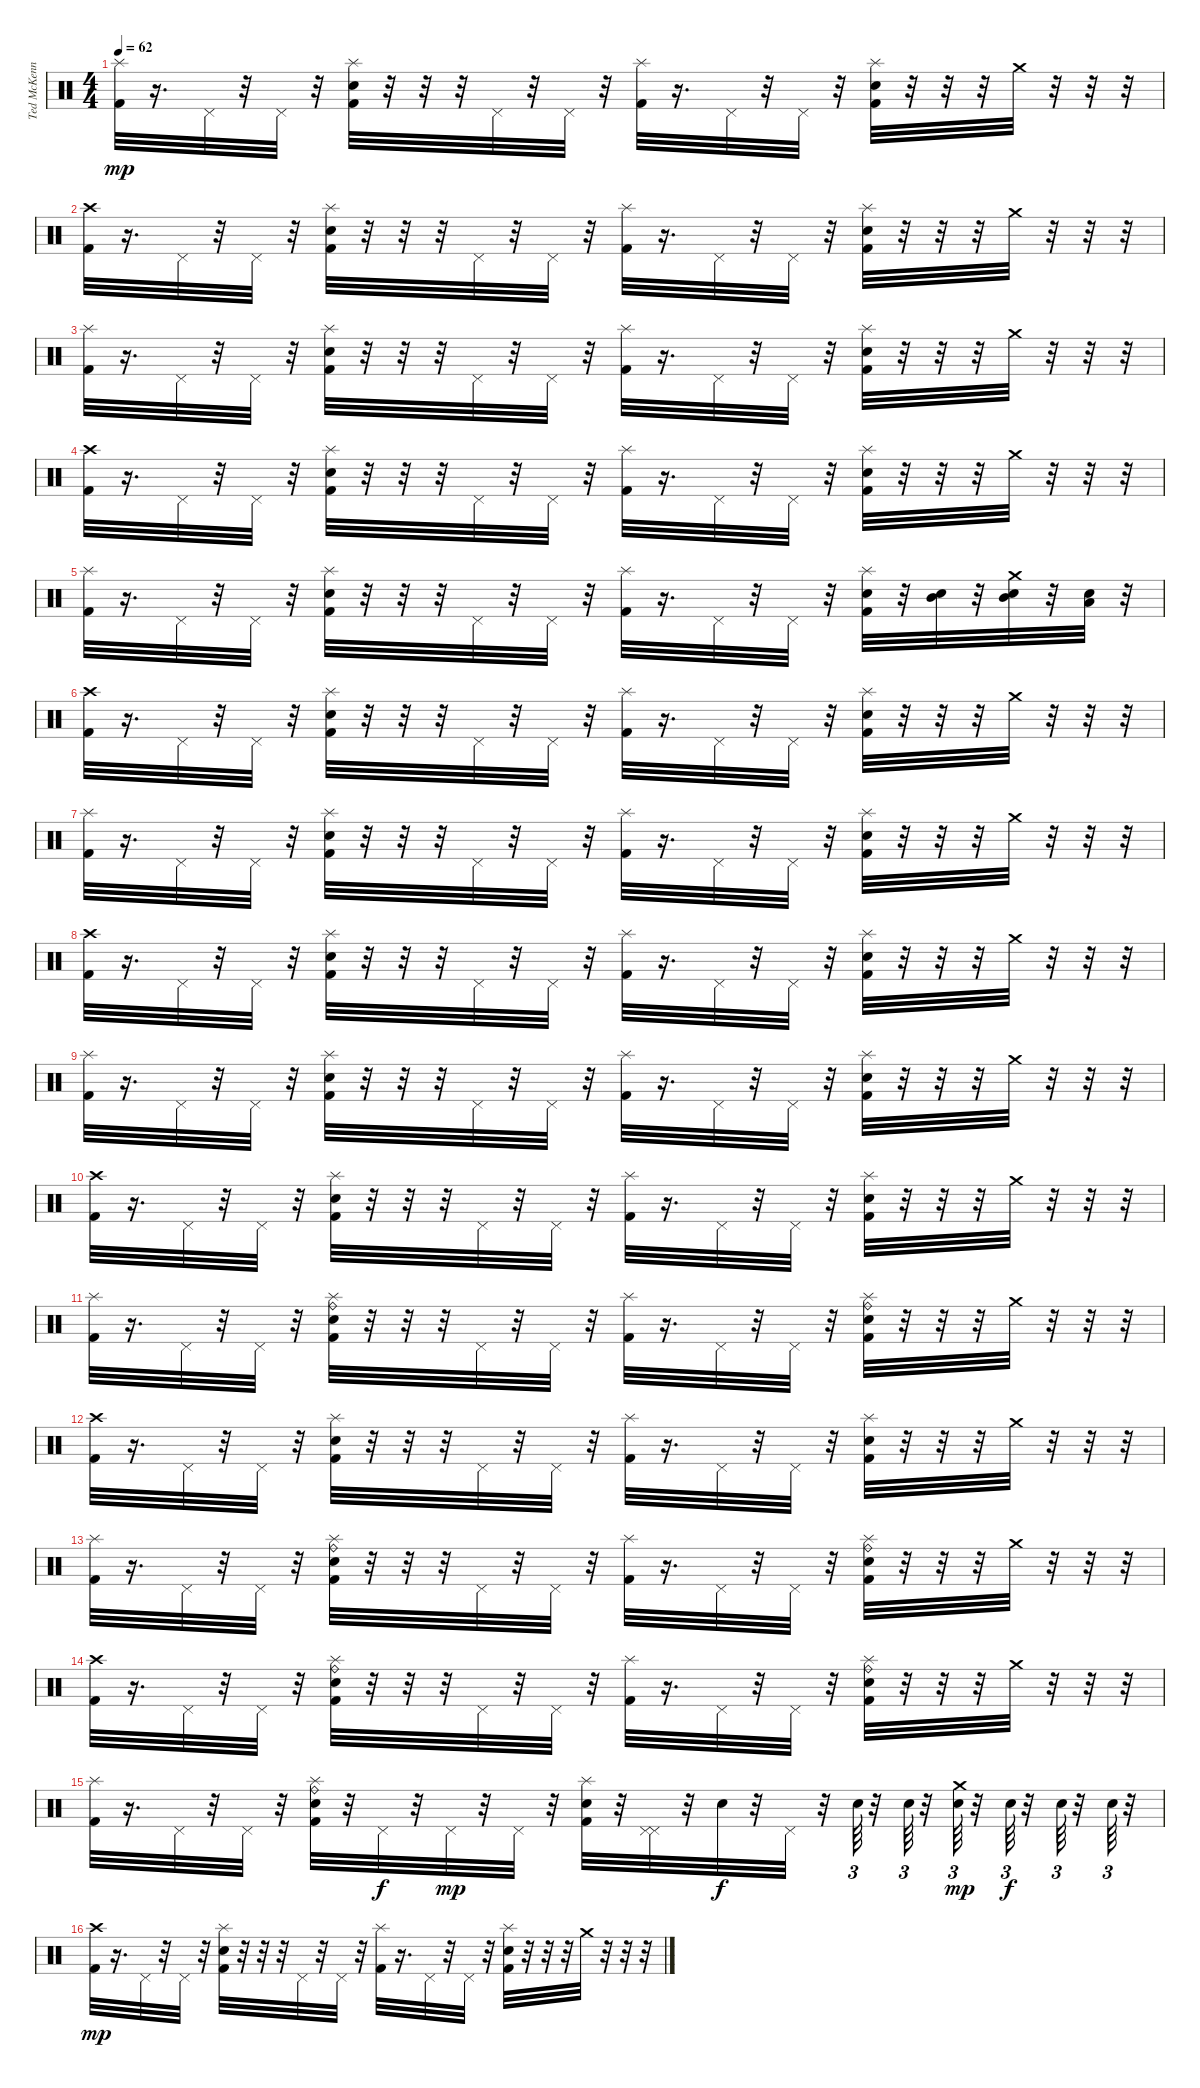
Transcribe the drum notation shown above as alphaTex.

\track ("Ted McKenna" "Ted McKenn") {instrument percussion}
\staff {score}
\articulation defaults
\ts (4 4)
\tempo 62
\clef neutral
\ks c
("Splash (hit)" "Kick (hit) 2").32{dy mp} r.16{d} "Pedal Hi-Hat (hit)".32 r.32 "Pedal Hi-Hat (hit)".32 r.32 ("Splash (hit)" "Electric Snare (hit)" "Kick (hit) 2").32 r.32 r.32 r.32 "Pedal Hi-Hat (hit)".32 r.32 "Pedal Hi-Hat (hit)".32 r.32 ("Splash (hit)" "Kick (hit) 2").32 r.16{d} "Pedal Hi-Hat (hit)".32 r.32 "Pedal Hi-Hat (hit)".32 r.32 ("Splash (hit)" "Electric Snare (hit)" "Kick (hit) 2").32 r.32 r.32 r.32 "Crash medium (hit)".32 r.32 r.32 r.32 |
("Crash high (hit)" "Kick (hit) 2").32 r.16{d} "Pedal Hi-Hat (hit)".32 r.32 "Pedal Hi-Hat (hit)".32 r.32 ("Splash (hit)" "Electric Snare (hit)" "Kick (hit) 2").32 r.32 r.32 r.32 "Pedal Hi-Hat (hit)".32 r.32 "Pedal Hi-Hat (hit)".32 r.32 ("Splash (hit)" "Kick (hit) 2").32 r.16{d} "Pedal Hi-Hat (hit)".32 r.32 "Pedal Hi-Hat (hit)".32 r.32 ("Splash (hit)" "Electric Snare (hit)" "Kick (hit) 2").32 r.32 r.32 r.32 "Crash medium (hit)".32 r.32 r.32 r.32 |
("Splash (hit)" "Kick (hit) 2").32 r.16{d} "Pedal Hi-Hat (hit)".32 r.32 "Pedal Hi-Hat (hit)".32 r.32 ("Splash (hit)" "Electric Snare (hit)" "Kick (hit) 2").32 r.32 r.32 r.32 "Pedal Hi-Hat (hit)".32 r.32 "Pedal Hi-Hat (hit)".32 r.32 ("Splash (hit)" "Kick (hit) 2").32 r.16{d} "Pedal Hi-Hat (hit)".32 r.32 "Pedal Hi-Hat (hit)".32 r.32 ("Splash (hit)" "Electric Snare (hit)" "Kick (hit) 2").32 r.32 r.32 r.32 "Crash medium (hit)".32 r.32 r.32 r.32 |
("Crash high (hit)" "Kick (hit) 2").32 r.16{d} "Pedal Hi-Hat (hit)".32 r.32 "Pedal Hi-Hat (hit)".32 r.32 ("Splash (hit)" "Electric Snare (hit)" "Kick (hit) 2").32 r.32 r.32 r.32 "Pedal Hi-Hat (hit)".32 r.32 "Pedal Hi-Hat (hit)".32 r.32 ("Splash (hit)" "Kick (hit) 2").32 r.16{d} "Pedal Hi-Hat (hit)".32 r.32 "Pedal Hi-Hat (hit)".32 r.32 ("Splash (hit)" "Electric Snare (hit)" "Kick (hit) 2").32 r.32 r.32 r.32 "Crash medium (hit)".32 r.32 r.32 r.32 |
("Splash (hit)" "Kick (hit) 2").32 r.16{d} "Pedal Hi-Hat (hit)".32 r.32 "Pedal Hi-Hat (hit)".32 r.32 ("Splash (hit)" "Electric Snare (hit)" "Kick (hit) 2").32 r.32 r.32 r.32 "Pedal Hi-Hat (hit)".32 r.32 "Pedal Hi-Hat (hit)".32 r.32 ("Splash (hit)" "Kick (hit) 2").32 r.16{d} "Pedal Hi-Hat (hit)".32 r.32 "Pedal Hi-Hat (hit)".32 r.32 ("Splash (hit)" "Electric Snare (hit)" "Kick (hit) 2").32 r.32 ("Electric Snare (hit)" "Mid Tom (hit)").32 r.32 ("Crash medium (hit)" "Electric Snare (hit)" "Mid Tom (hit)").32 r.32 ("Electric Snare (hit)" "Low Tom (hit)").32 r.32 |
("Crash high (hit)" "Kick (hit) 2").32 r.16{d} "Pedal Hi-Hat (hit)".32 r.32 "Pedal Hi-Hat (hit)".32 r.32 ("Splash (hit)" "Electric Snare (hit)" "Kick (hit) 2").32 r.32 r.32 r.32 "Pedal Hi-Hat (hit)".32 r.32 "Pedal Hi-Hat (hit)".32 r.32 ("Splash (hit)" "Kick (hit) 2").32 r.16{d} "Pedal Hi-Hat (hit)".32 r.32 "Pedal Hi-Hat (hit)".32 r.32 ("Splash (hit)" "Electric Snare (hit)" "Kick (hit) 2").32 r.32 r.32 r.32 "Crash medium (hit)".32 r.32 r.32 r.32 |
("Splash (hit)" "Kick (hit) 2").32 r.16{d} "Pedal Hi-Hat (hit)".32 r.32 "Pedal Hi-Hat (hit)".32 r.32 ("Splash (hit)" "Electric Snare (hit)" "Kick (hit) 2").32 r.32 r.32 r.32 "Pedal Hi-Hat (hit)".32 r.32 "Pedal Hi-Hat (hit)".32 r.32 ("Splash (hit)" "Kick (hit) 2").32 r.16{d} "Pedal Hi-Hat (hit)".32 r.32 "Pedal Hi-Hat (hit)".32 r.32 ("Splash (hit)" "Electric Snare (hit)" "Kick (hit) 2").32 r.32 r.32 r.32 "Crash medium (hit)".32 r.32 r.32 r.32 |
("Crash high (hit)" "Kick (hit) 2").32 r.16{d} "Pedal Hi-Hat (hit)".32 r.32 "Pedal Hi-Hat (hit)".32 r.32 ("Splash (hit)" "Electric Snare (hit)" "Kick (hit) 2").32 r.32 r.32 r.32 "Pedal Hi-Hat (hit)".32 r.32 "Pedal Hi-Hat (hit)".32 r.32 ("Splash (hit)" "Kick (hit) 2").32 r.16{d} "Pedal Hi-Hat (hit)".32 r.32 "Pedal Hi-Hat (hit)".32 r.32 ("Splash (hit)" "Electric Snare (hit)" "Kick (hit) 2").32 r.32 r.32 r.32 "Crash medium (hit)".32 r.32 r.32 r.32 |
("Splash (hit)" "Kick (hit) 2").32 r.16{d} "Pedal Hi-Hat (hit)".32 r.32 "Pedal Hi-Hat (hit)".32 r.32 ("Splash (hit)" "Electric Snare (hit)" "Kick (hit) 2").32 r.32 r.32 r.32 "Pedal Hi-Hat (hit)".32 r.32 "Pedal Hi-Hat (hit)".32 r.32 ("Splash (hit)" "Kick (hit) 2").32 r.16{d} "Pedal Hi-Hat (hit)".32 r.32 "Pedal Hi-Hat (hit)".32 r.32 ("Splash (hit)" "Electric Snare (hit)" "Kick (hit) 2").32 r.32 r.32 r.32 "Crash medium (hit)".32 r.32 r.32 r.32 |
("Crash high (hit)" "Kick (hit) 2").32 r.16{d} "Pedal Hi-Hat (hit)".32 r.32 "Pedal Hi-Hat (hit)".32 r.32 ("Splash (hit)" "Electric Snare (hit)" "Kick (hit) 2").32 r.32 r.32 r.32 "Pedal Hi-Hat (hit)".32 r.32 "Pedal Hi-Hat (hit)".32 r.32 ("Splash (hit)" "Kick (hit) 2").32 r.16{d} "Pedal Hi-Hat (hit)".32 r.32 "Pedal Hi-Hat (hit)".32 r.32 ("Splash (hit)" "Electric Snare (hit)" "Kick (hit) 2").32 r.32 r.32 r.32 "Crash medium (hit)".32 r.32 r.32 r.32 |
("Splash (hit)" "Kick (hit) 2").32 r.16{d} "Pedal Hi-Hat (hit)".32 r.32 "Pedal Hi-Hat (hit)".32 r.32 ("Ride (bell)" "Splash (hit)" "Electric Snare (hit)" "Kick (hit) 2").32 r.32 r.32 r.32 "Pedal Hi-Hat (hit)".32 r.32 "Pedal Hi-Hat (hit)".32 r.32 ("Splash (hit)" "Kick (hit) 2").32 r.16{d} "Pedal Hi-Hat (hit)".32 r.32 "Pedal Hi-Hat (hit)".32 r.32 ("Ride (bell)" "Splash (hit)" "Electric Snare (hit)" "Kick (hit) 2").32 r.32 r.32 r.32 "Crash medium (hit)".32 r.32 r.32 r.32 |
("Crash high (hit)" "Kick (hit) 2").32 r.16{d} "Pedal Hi-Hat (hit)".32 r.32 "Pedal Hi-Hat (hit)".32 r.32 ("Splash (hit)" "Electric Snare (hit)" "Kick (hit) 2").32 r.32 r.32 r.32 "Pedal Hi-Hat (hit)".32 r.32 "Pedal Hi-Hat (hit)".32 r.32 ("Splash (hit)" "Kick (hit) 2").32 r.16{d} "Pedal Hi-Hat (hit)".32 r.32 "Pedal Hi-Hat (hit)".32 r.32 ("Splash (hit)" "Electric Snare (hit)" "Kick (hit) 2").32 r.32 r.32 r.32 "Crash medium (hit)".32 r.32 r.32 r.32 |
("Splash (hit)" "Kick (hit) 2").32 r.16{d} "Pedal Hi-Hat (hit)".32 r.32 "Pedal Hi-Hat (hit)".32 r.32 ("Ride (bell)" "Splash (hit)" "Electric Snare (hit)" "Kick (hit) 2").32 r.32 r.32 r.32 "Pedal Hi-Hat (hit)".32 r.32 "Pedal Hi-Hat (hit)".32 r.32 ("Splash (hit)" "Kick (hit) 2").32 r.16{d} "Pedal Hi-Hat (hit)".32 r.32 "Pedal Hi-Hat (hit)".32 r.32 ("Ride (bell)" "Splash (hit)" "Electric Snare (hit)" "Kick (hit) 2").32 r.32 r.32 r.32 "Crash medium (hit)".32 r.32 r.32 r.32 |
("Crash high (hit)" "Kick (hit) 2").32 r.16{d} "Pedal Hi-Hat (hit)".32 r.32 "Pedal Hi-Hat (hit)".32 r.32 ("Ride (bell)" "Splash (hit)" "Electric Snare (hit)" "Kick (hit) 2").32 r.32 r.32 r.32 "Pedal Hi-Hat (hit)".32 r.32 "Pedal Hi-Hat (hit)".32 r.32 ("Splash (hit)" "Kick (hit) 2").32 r.16{d} "Pedal Hi-Hat (hit)".32 r.32 "Pedal Hi-Hat (hit)".32 r.32 ("Ride (bell)" "Splash (hit)" "Electric Snare (hit)" "Kick (hit) 2").32 r.32 r.32 r.32 "Crash medium (hit)".32 r.32 r.32 r.32 |
("Splash (hit)" "Kick (hit) 2").32 r.16{d} "Pedal Hi-Hat (hit)".32 r.32 "Pedal Hi-Hat (hit)".32 r.32 ("Ride (bell)" "Splash (hit)" "Electric Snare (hit)" "Kick (hit) 2").32 r.32 "Pedal Hi-Hat (hit)".32{dy f} r.32 "Pedal Hi-Hat (hit)".32{dy mp} r.32 "Pedal Hi-Hat (hit)".32 r.32 ("Splash (hit)" "Electric Snare (hit)" "Kick (hit) 2").32 r.32 ("Pedal Hi-Hat (hit)" "Pedal Hi-Hat (hit)").32 r.32 "Electric Snare (hit)".32{dy f} r.32 "Pedal Hi-Hat (hit)".32 r.32 "Electric Snare (hit)".64{tu (3 2)} r.32 "Electric Snare (hit)".64{tu (3 2)} r.32 ("Crash medium (hit)" "Electric Snare (hit)").64{tu (3 2) dy mp} r.32 "Snare (hit) 2".64{tu (3 2) dy f} r.32 "Snare (hit) 2".64{tu (3 2)} r.32 "Snare (hit) 2".64{tu (3 2)} r.32 |
("Crash high (hit)" "Kick (hit) 2").32{dy mp} r.16{d} "Pedal Hi-Hat (hit)".32 r.32 "Pedal Hi-Hat (hit)".32 r.32 ("Splash (hit)" "Electric Snare (hit)" "Kick (hit) 2").32 r.32 r.32 r.32 "Pedal Hi-Hat (hit)".32 r.32 "Pedal Hi-Hat (hit)".32 r.32 ("Splash (hit)" "Kick (hit) 2").32 r.16{d} "Pedal Hi-Hat (hit)".32 r.32 "Pedal Hi-Hat (hit)".32 r.32 ("Splash (hit)" "Electric Snare (hit)" "Kick (hit) 2").32 r.32 r.32 r.32 "Crash medium (hit)".32 r.32 r.32 r.32
